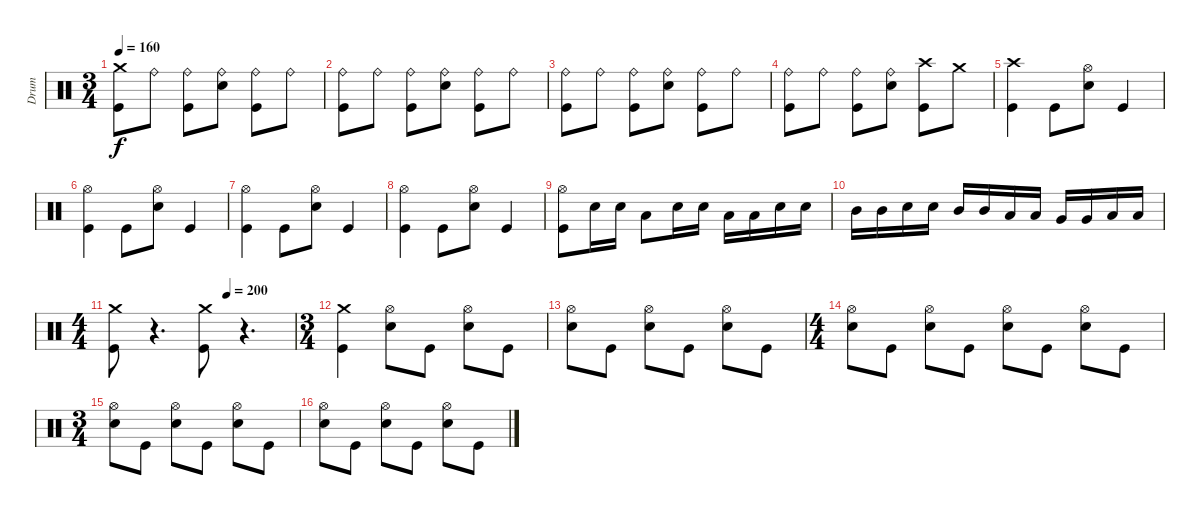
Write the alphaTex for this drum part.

\track ("Drum" "Drum") {instrument percussion}
\staff {score}
\articulation defaults
\ts (3 4)
\tempo 160
\clef neutral
\ks c
("Kick (hit)" "Crash medium (hit)").8{dy f} "Ride (bell)".8 ("Kick (hit)" "Ride (bell)").8 ("Electric Snare (hit)" "Ride (bell)").8 ("Kick (hit)" "Ride (bell)").8 "Ride (bell)".8 |
("Kick (hit)" "Ride (bell)").8 "Ride (bell)".8 ("Kick (hit)" "Ride (bell)").8 ("Electric Snare (hit)" "Ride (bell)").8 ("Kick (hit)" "Ride (bell)").8 "Ride (bell)".8 |
("Kick (hit)" "Ride (bell)").8 "Ride (bell)".8 ("Kick (hit)" "Ride (bell)").8 ("Electric Snare (hit)" "Ride (bell)").8 ("Kick (hit)" "Ride (bell)").8 "Ride (bell)".8 |
("Kick (hit)" "Ride (bell)").8 "Ride (bell)".8 ("Kick (hit)" "Ride (bell)").8 ("Electric Snare (hit)" "Ride (bell)").8 ("Kick (hit)" "Crash high (hit)").8 "Crash medium (hit)".8 |
("Kick (hit)" "Crash high (hit)").4 "Kick (hit)".8 ("Electric Snare (hit)" "Hi-Hat (open)").8 "Kick (hit)".4 |
("Kick (hit)" "Hi-Hat (open)").4 "Kick (hit)".8 ("Electric Snare (hit)" "Hi-Hat (open)").8 "Kick (hit)".4 |
("Kick (hit)" "Hi-Hat (open)").4 "Kick (hit)".8 ("Electric Snare (hit)" "Hi-Hat (open)").8 "Kick (hit)".4 |
("Kick (hit)" "Hi-Hat (open)").4 "Kick (hit)".8 ("Electric Snare (hit)" "Hi-Hat (open)").8 "Kick (hit)".4 |
("Kick (hit)" "Hi-Hat (open)").8 "Electric Snare (hit)".16 "Electric Snare (hit)".16 "Low Tom (hit)".8 "Electric Snare (hit)".16 "Electric Snare (hit)".16 "Low Tom (hit)".16 "Low Tom (hit)".16 "Electric Snare (hit)".16 "Electric Snare (hit)".16 |
"Mid Tom (hit)".16 "Mid Tom (hit)".16 "Electric Snare (hit)".16 "Electric Snare (hit)".16 "Mid Tom (hit)".16 "Mid Tom (hit)".16 "Low Tom (hit)".16 "Low Tom (hit)".16 "Very Low Tom (hit)".16 "Very Low Tom (hit)".16 "Low Floor Tom (hit)".16 "Low Floor Tom (hit)".16 |
\ts (4 4)
\tempo (200 0.625)
("Kick (hit)" "Crash medium (hit)").8 r.4{d} ("Kick (hit)" "Crash medium (hit)").8 r.4{d} |
\ts (3 4)
("Kick (hit)" "Crash medium (hit)").4 ("Electric Snare (hit)" "Hi-Hat (open)").8 "Kick (hit)".8 ("Electric Snare (hit)" "Hi-Hat (open)").8 "Kick (hit)".8 |
("Electric Snare (hit)" "Hi-Hat (open)").8 "Kick (hit)".8 ("Electric Snare (hit)" "Hi-Hat (open)").8 "Kick (hit)".8 ("Electric Snare (hit)" "Hi-Hat (open)").8 "Kick (hit)".8 |
\ts (4 4)
("Electric Snare (hit)" "Hi-Hat (open)").8 "Kick (hit)".8 ("Electric Snare (hit)" "Hi-Hat (open)").8 "Kick (hit)".8 ("Electric Snare (hit)" "Hi-Hat (open)").8 "Kick (hit)".8 ("Electric Snare (hit)" "Hi-Hat (open)").8 "Kick (hit)".8 |
\ts (3 4)
("Electric Snare (hit)" "Hi-Hat (open)").8 "Kick (hit)".8 ("Electric Snare (hit)" "Hi-Hat (open)").8 "Kick (hit)".8 ("Electric Snare (hit)" "Hi-Hat (open)").8 "Kick (hit)".8 |
("Electric Snare (hit)" "Hi-Hat (open)").8 "Kick (hit)".8 ("Electric Snare (hit)" "Hi-Hat (open)").8 "Kick (hit)".8 ("Electric Snare (hit)" "Hi-Hat (open)").8 "Kick (hit)".8
